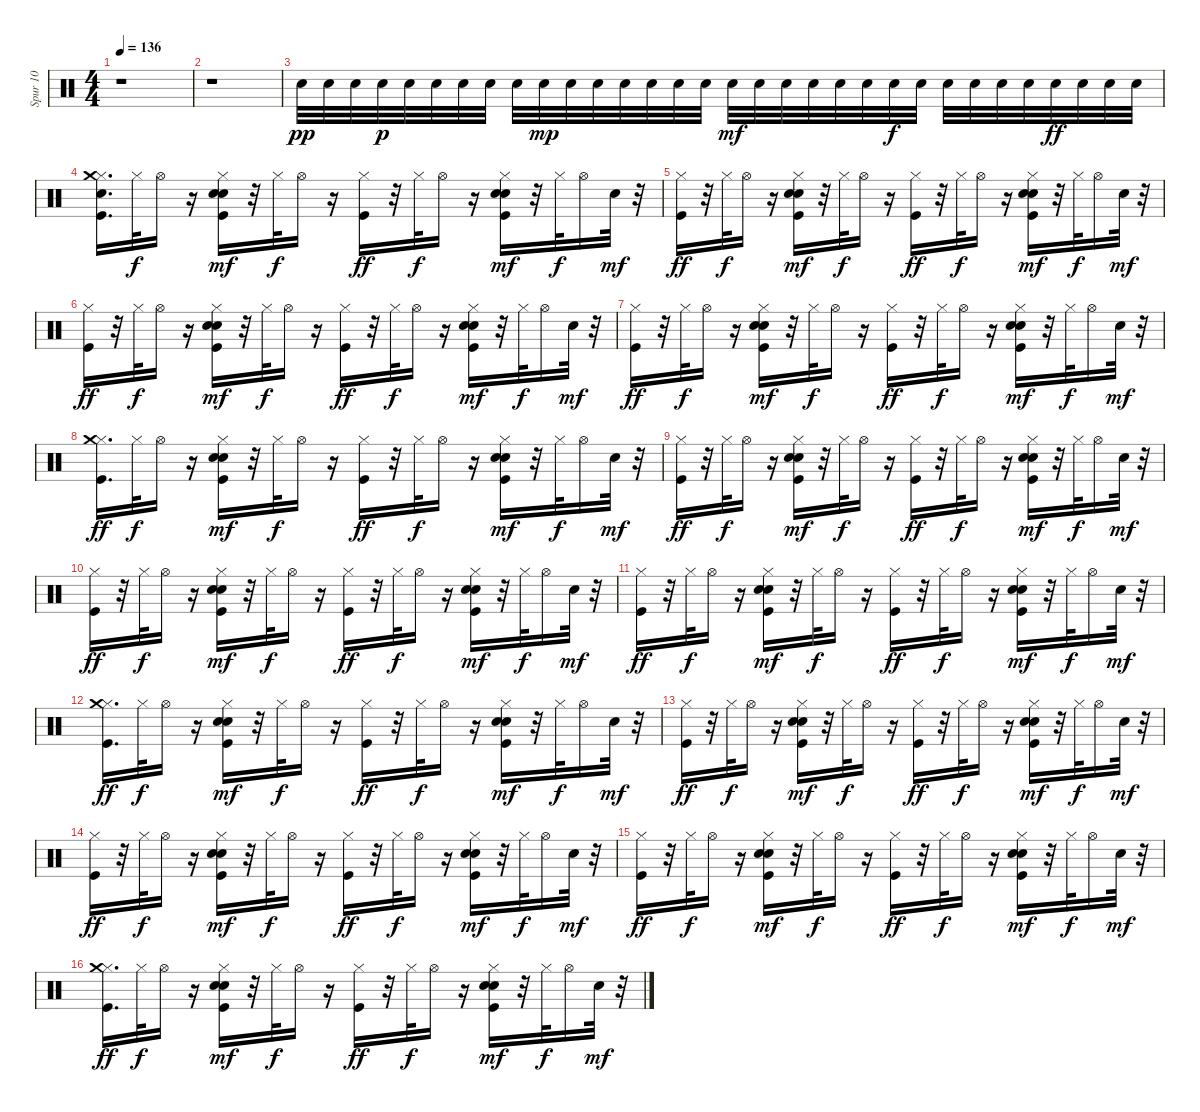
\track ("Spur 10" "Spur 10") {instrument percussion}
\staff {score}
\articulation defaults
\ts (4 4)
\tempo 136
\clef neutral
\ks c
r.1{dy mf} |
r.1 |
"Snare (hit) 2".32{dy pp} "Snare (hit) 2".32 "Snare (hit) 2".32 "Snare (hit) 2".32{dy p} "Snare (hit) 2".32 "Snare (hit) 2".32 "Snare (hit) 2".32 "Snare (hit) 2".32 "Snare (hit) 2".32 "Snare (hit) 2".32{dy mp} "Snare (hit) 2".32 "Snare (hit) 2".32 "Snare (hit) 2".32 "Snare (hit) 2".32 "Snare (hit) 2".32 "Snare (hit) 2".32 "Snare (hit) 2".32{dy mf} "Snare (hit) 2".32 "Snare (hit) 2".32 "Snare (hit) 2".32 "Snare (hit) 2".32 "Snare (hit) 2".32 "Snare (hit) 2".32{dy f} "Snare (hit) 2".32 "Snare (hit) 2".32 "Snare (hit) 2".32 "Snare (hit) 2".32 "Snare (hit) 2".32 "Snare (hit) 2".32{dy ff} "Snare (hit) 2".32 "Snare (hit) 2".32 "Snare (hit) 2".32 |
("Kick (hit)" "Hi-Hat (closed)" "Crash medium (hit)" "Snare (hit) 2").16{d} "Hi-Hat (closed)".32{dy f} "Hi-Hat (open)".16 r.16 ("Kick (hit)" "Snare (hit) 2" "Hi-Hat (closed)" "Hand Clap (hit)").16{dy mf} r.32 "Hi-Hat (closed)".32{dy f} "Hi-Hat (open)".16 r.16 ("Kick (hit)" "Hi-Hat (closed)").16{dy ff} r.32 "Hi-Hat (closed)".32{dy f} "Hi-Hat (open)".16 r.16 ("Kick (hit)" "Snare (hit) 2" "Hi-Hat (closed)" "Hand Clap (hit)").16{dy mf} r.32 "Hi-Hat (closed)".32{dy f} "Hi-Hat (open)".16 "Snare (hit) 2".32{dy mf} r.32 |
("Kick (hit)" "Hi-Hat (closed)").16{dy ff} r.32 "Hi-Hat (closed)".32{dy f} "Hi-Hat (open)".16 r.16 ("Kick (hit)" "Snare (hit) 2" "Hi-Hat (closed)" "Hand Clap (hit)").16{dy mf} r.32 "Hi-Hat (closed)".32{dy f} "Hi-Hat (open)".16 r.16 ("Kick (hit)" "Hi-Hat (closed)").16{dy ff} r.32 "Hi-Hat (closed)".32{dy f} "Hi-Hat (open)".16 r.16 ("Kick (hit)" "Snare (hit) 2" "Hi-Hat (closed)" "Hand Clap (hit)").16{dy mf} r.32 "Hi-Hat (closed)".32{dy f} "Hi-Hat (open)".16 "Snare (hit) 2".32{dy mf} r.32 |
("Kick (hit)" "Hi-Hat (closed)").16{dy ff} r.32 "Hi-Hat (closed)".32{dy f} "Hi-Hat (open)".16 r.16 ("Kick (hit)" "Snare (hit) 2" "Hi-Hat (closed)" "Hand Clap (hit)").16{dy mf} r.32 "Hi-Hat (closed)".32{dy f} "Hi-Hat (open)".16 r.16 ("Kick (hit)" "Hi-Hat (closed)").16{dy ff} r.32 "Hi-Hat (closed)".32{dy f} "Hi-Hat (open)".16 r.16 ("Kick (hit)" "Snare (hit) 2" "Hi-Hat (closed)" "Hand Clap (hit)").16{dy mf} r.32 "Hi-Hat (closed)".32{dy f} "Hi-Hat (open)".16 "Snare (hit) 2".32{dy mf} r.32 |
("Kick (hit)" "Hi-Hat (closed)").16{dy ff} r.32 "Hi-Hat (closed)".32{dy f} "Hi-Hat (open)".16 r.16 ("Kick (hit)" "Snare (hit) 2" "Hi-Hat (closed)" "Hand Clap (hit)").16{dy mf} r.32 "Hi-Hat (closed)".32{dy f} "Hi-Hat (open)".16 r.16 ("Kick (hit)" "Hi-Hat (closed)").16{dy ff} r.32 "Hi-Hat (closed)".32{dy f} "Hi-Hat (open)".16 r.16 ("Kick (hit)" "Snare (hit) 2" "Hi-Hat (closed)" "Hand Clap (hit)").16{dy mf} r.32 "Hi-Hat (closed)".32{dy f} "Hi-Hat (open)".16 "Snare (hit) 2".32{dy mf} r.32 |
("Kick (hit)" "Hi-Hat (closed)" "Crash medium (hit)").16{d dy ff} "Hi-Hat (closed)".32{dy f} "Hi-Hat (open)".16 r.16 ("Kick (hit)" "Snare (hit) 2" "Hi-Hat (closed)" "Hand Clap (hit)").16{dy mf} r.32 "Hi-Hat (closed)".32{dy f} "Hi-Hat (open)".16 r.16 ("Kick (hit)" "Hi-Hat (closed)").16{dy ff} r.32 "Hi-Hat (closed)".32{dy f} "Hi-Hat (open)".16 r.16 ("Kick (hit)" "Snare (hit) 2" "Hi-Hat (closed)" "Hand Clap (hit)").16{dy mf} r.32 "Hi-Hat (closed)".32{dy f} "Hi-Hat (open)".16 "Snare (hit) 2".32{dy mf} r.32 |
("Kick (hit)" "Hi-Hat (closed)").16{dy ff} r.32 "Hi-Hat (closed)".32{dy f} "Hi-Hat (open)".16 r.16 ("Kick (hit)" "Snare (hit) 2" "Hi-Hat (closed)" "Hand Clap (hit)").16{dy mf} r.32 "Hi-Hat (closed)".32{dy f} "Hi-Hat (open)".16 r.16 ("Kick (hit)" "Hi-Hat (closed)").16{dy ff} r.32 "Hi-Hat (closed)".32{dy f} "Hi-Hat (open)".16 r.16 ("Kick (hit)" "Snare (hit) 2" "Hi-Hat (closed)" "Hand Clap (hit)").16{dy mf} r.32 "Hi-Hat (closed)".32{dy f} "Hi-Hat (open)".16 "Snare (hit) 2".32{dy mf} r.32 |
("Kick (hit)" "Hi-Hat (closed)").16{dy ff} r.32 "Hi-Hat (closed)".32{dy f} "Hi-Hat (open)".16 r.16 ("Kick (hit)" "Snare (hit) 2" "Hi-Hat (closed)" "Hand Clap (hit)").16{dy mf} r.32 "Hi-Hat (closed)".32{dy f} "Hi-Hat (open)".16 r.16 ("Kick (hit)" "Hi-Hat (closed)").16{dy ff} r.32 "Hi-Hat (closed)".32{dy f} "Hi-Hat (open)".16 r.16 ("Kick (hit)" "Snare (hit) 2" "Hi-Hat (closed)" "Hand Clap (hit)").16{dy mf} r.32 "Hi-Hat (closed)".32{dy f} "Hi-Hat (open)".16 "Snare (hit) 2".32{dy mf} r.32 |
("Kick (hit)" "Hi-Hat (closed)").16{dy ff} r.32 "Hi-Hat (closed)".32{dy f} "Hi-Hat (open)".16 r.16 ("Kick (hit)" "Snare (hit) 2" "Hi-Hat (closed)" "Hand Clap (hit)").16{dy mf} r.32 "Hi-Hat (closed)".32{dy f} "Hi-Hat (open)".16 r.16 ("Kick (hit)" "Hi-Hat (closed)").16{dy ff} r.32 "Hi-Hat (closed)".32{dy f} "Hi-Hat (open)".16 r.16 ("Kick (hit)" "Snare (hit) 2" "Hi-Hat (closed)" "Hand Clap (hit)").16{dy mf} r.32 "Hi-Hat (closed)".32{dy f} "Hi-Hat (open)".16 "Snare (hit) 2".32{dy mf} r.32 |
("Kick (hit)" "Hi-Hat (closed)" "Crash medium (hit)").16{d dy ff} "Hi-Hat (closed)".32{dy f} "Hi-Hat (open)".16 r.16 ("Kick (hit)" "Snare (hit) 2" "Hi-Hat (closed)" "Hand Clap (hit)").16{dy mf} r.32 "Hi-Hat (closed)".32{dy f} "Hi-Hat (open)".16 r.16 ("Kick (hit)" "Hi-Hat (closed)").16{dy ff} r.32 "Hi-Hat (closed)".32{dy f} "Hi-Hat (open)".16 r.16 ("Kick (hit)" "Snare (hit) 2" "Hi-Hat (closed)" "Hand Clap (hit)").16{dy mf} r.32 "Hi-Hat (closed)".32{dy f} "Hi-Hat (open)".16 "Snare (hit) 2".32{dy mf} r.32 |
("Kick (hit)" "Hi-Hat (closed)").16{dy ff} r.32 "Hi-Hat (closed)".32{dy f} "Hi-Hat (open)".16 r.16 ("Kick (hit)" "Snare (hit) 2" "Hi-Hat (closed)" "Hand Clap (hit)").16{dy mf} r.32 "Hi-Hat (closed)".32{dy f} "Hi-Hat (open)".16 r.16 ("Kick (hit)" "Hi-Hat (closed)").16{dy ff} r.32 "Hi-Hat (closed)".32{dy f} "Hi-Hat (open)".16 r.16 ("Kick (hit)" "Snare (hit) 2" "Hi-Hat (closed)" "Hand Clap (hit)").16{dy mf} r.32 "Hi-Hat (closed)".32{dy f} "Hi-Hat (open)".16 "Snare (hit) 2".32{dy mf} r.32 |
("Kick (hit)" "Hi-Hat (closed)").16{dy ff} r.32 "Hi-Hat (closed)".32{dy f} "Hi-Hat (open)".16 r.16 ("Kick (hit)" "Snare (hit) 2" "Hi-Hat (closed)" "Hand Clap (hit)").16{dy mf} r.32 "Hi-Hat (closed)".32{dy f} "Hi-Hat (open)".16 r.16 ("Kick (hit)" "Hi-Hat (closed)").16{dy ff} r.32 "Hi-Hat (closed)".32{dy f} "Hi-Hat (open)".16 r.16 ("Kick (hit)" "Snare (hit) 2" "Hi-Hat (closed)" "Hand Clap (hit)").16{dy mf} r.32 "Hi-Hat (closed)".32{dy f} "Hi-Hat (open)".16 "Snare (hit) 2".32{dy mf} r.32 |
("Kick (hit)" "Hi-Hat (closed)").16{dy ff} r.32 "Hi-Hat (closed)".32{dy f} "Hi-Hat (open)".16 r.16 ("Kick (hit)" "Snare (hit) 2" "Hi-Hat (closed)" "Hand Clap (hit)").16{dy mf} r.32 "Hi-Hat (closed)".32{dy f} "Hi-Hat (open)".16 r.16 ("Kick (hit)" "Hi-Hat (closed)").16{dy ff} r.32 "Hi-Hat (closed)".32{dy f} "Hi-Hat (open)".16 r.16 ("Kick (hit)" "Snare (hit) 2" "Hi-Hat (closed)" "Hand Clap (hit)").16{dy mf} r.32 "Hi-Hat (closed)".32{dy f} "Hi-Hat (open)".16 "Snare (hit) 2".32{dy mf} r.32 |
("Kick (hit)" "Hi-Hat (closed)" "Crash medium (hit)").16{d dy ff} "Hi-Hat (closed)".32{dy f} "Hi-Hat (open)".16 r.16 ("Kick (hit)" "Snare (hit) 2" "Hi-Hat (closed)" "Hand Clap (hit)").16{dy mf} r.32 "Hi-Hat (closed)".32{dy f} "Hi-Hat (open)".16 r.16 ("Kick (hit)" "Hi-Hat (closed)").16{dy ff} r.32 "Hi-Hat (closed)".32{dy f} "Hi-Hat (open)".16 r.16 ("Kick (hit)" "Snare (hit) 2" "Hi-Hat (closed)" "Hand Clap (hit)").16{dy mf} r.32 "Hi-Hat (closed)".32{dy f} "Hi-Hat (open)".16 "Snare (hit) 2".32{dy mf} r.32
